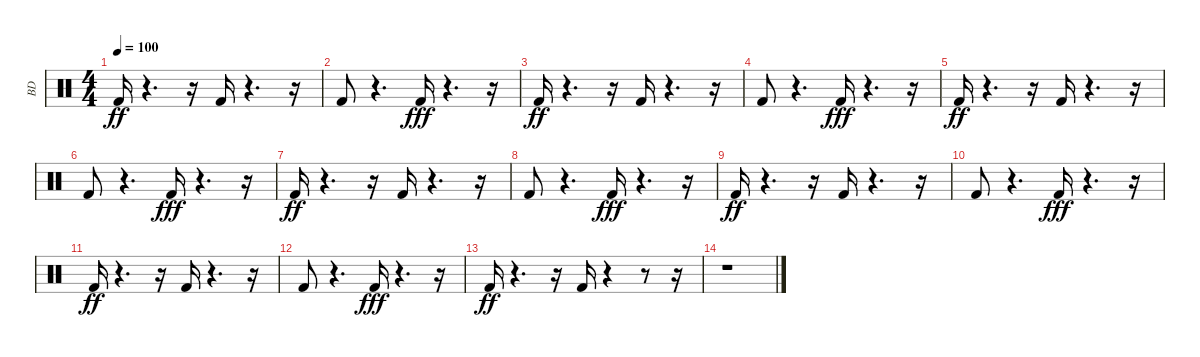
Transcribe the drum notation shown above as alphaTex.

\track ("BD" "BD") {instrument percussion}
\staff {score}
\articulation defaults
\ts (4 4)
\tempo 100
\clef neutral
\ks c "Kick (hit) 2".16{dy ff}
r.4{d} r.16 "Kick (hit) 2".16 r.4{d} r.16 |
"Kick (hit) 2".8 r.4{d} "Kick (hit) 2".16{dy fff} r.4{d} r.16 |
"Kick (hit) 2".16{dy ff} r.4{d} r.16 "Kick (hit) 2".16 r.4{d} r.16 |
"Kick (hit) 2".8 r.4{d} "Kick (hit) 2".16{dy fff} r.4{d} r.16 |
"Kick (hit) 2".16{dy ff} r.4{d} r.16 "Kick (hit) 2".16 r.4{d} r.16 |
"Kick (hit) 2".8 r.4{d} "Kick (hit) 2".16{dy fff} r.4{d} r.16 |
"Kick (hit) 2".16{dy ff} r.4{d} r.16 "Kick (hit) 2".16 r.4{d} r.16 |
"Kick (hit) 2".8 r.4{d} "Kick (hit) 2".16{dy fff} r.4{d} r.16 |
"Kick (hit) 2".16{dy ff} r.4{d} r.16 "Kick (hit) 2".16 r.4{d} r.16 |
"Kick (hit) 2".8 r.4{d} "Kick (hit) 2".16{dy fff} r.4{d} r.16 |
"Kick (hit) 2".16{dy ff} r.4{d} r.16 "Kick (hit) 2".16 r.4{d} r.16 |
"Kick (hit) 2".8 r.4{d} "Kick (hit) 2".16{dy fff} r.4{d} r.16 |
"Kick (hit) 2".16{dy ff} r.4{d} r.16 "Kick (hit) 2".16 r.4 r.8 r.16 |
r.1
